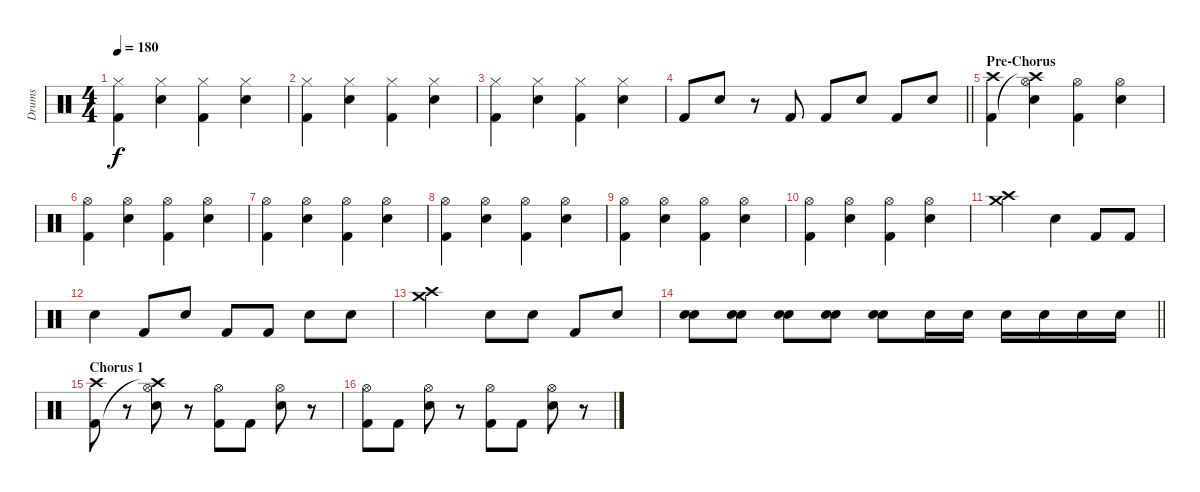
\track ("Drums" "Drums") {instrument percussion}
\staff {score}
\articulation defaults
\ts (4 4)
\tempo 180
\clef neutral
\ks c
("Hi-Hat (closed)" "Kick (hit) 2").4{dy f} ("Hi-Hat (closed)" "Snare (hit) 2").4 ("Hi-Hat (closed)" "Kick (hit) 2").4 ("Hi-Hat (closed)" "Snare (hit) 2").4 |
("Hi-Hat (closed)" "Kick (hit) 2").4 ("Hi-Hat (closed)" "Snare (hit) 2").4 ("Hi-Hat (closed)" "Kick (hit) 2").4 ("Hi-Hat (closed)" "Snare (hit) 2").4 |
("Hi-Hat (closed)" "Kick (hit) 2").4 ("Hi-Hat (closed)" "Snare (hit) 2").4 ("Hi-Hat (closed)" "Kick (hit) 2").4 ("Hi-Hat (closed)" "Snare (hit) 2").4 |
\barLineRight lightlight "Kick (hit) 2".8 "Snare (hit) 2".8
r.8 "Kick (hit) 2".8 "Kick (hit) 2".8 "Snare (hit) 2".8 "Kick (hit) 2".8 "Snare (hit) 2".8 |
\section ("" "Pre-Chorus")
("Crash high (hit)" "Kick (hit) 2").4 ("Hi-Hat (open)" "Crash high (hit)"{t} "Snare (hit) 2").4 ("Hi-Hat (open)" "Kick (hit) 2").4 ("Hi-Hat (open)" "Snare (hit) 2").4 |
("Hi-Hat (open)" "Kick (hit) 2").4 ("Hi-Hat (open)" "Snare (hit) 2").4 ("Hi-Hat (open)" "Kick (hit) 2").4 ("Hi-Hat (open)" "Snare (hit) 2").4 |
("Hi-Hat (open)" "Kick (hit) 2").4 ("Hi-Hat (open)" "Snare (hit) 2").4 ("Hi-Hat (open)" "Kick (hit) 2").4 ("Hi-Hat (open)" "Snare (hit) 2").4 |
("Hi-Hat (open)" "Kick (hit) 2").4 ("Hi-Hat (open)" "Snare (hit) 2").4 ("Hi-Hat (open)" "Kick (hit) 2").4 ("Hi-Hat (open)" "Snare (hit) 2").4 |
("Hi-Hat (open)" "Kick (hit) 2").4 ("Hi-Hat (open)" "Snare (hit) 2").4 ("Hi-Hat (open)" "Kick (hit) 2").4 ("Hi-Hat (open)" "Snare (hit) 2").4 |
("Hi-Hat (open)" "Kick (hit) 2").4 ("Hi-Hat (open)" "Snare (hit) 2").4 ("Hi-Hat (open)" "Kick (hit) 2").4 ("Hi-Hat (open)" "Snare (hit) 2").4 |
("Crash high (hit)" "Crash medium (hit)").2 "Snare (hit) 2".4 "Kick (hit) 2".8 "Kick (hit) 2".8 |
"Snare (hit) 2".4 "Kick (hit) 2".8 "Snare (hit) 2".8 "Kick (hit) 2".8 "Kick (hit) 2".8 "Snare (hit) 2".8 "Snare (hit) 2".8 |
("Crash high (hit)" "Crash medium (hit)").2 "Snare (hit) 2".8 "Snare (hit) 2".8 "Kick (hit) 2".8 "Snare (hit) 2".8 |
\barLineRight lightlight
("Snare (hit) 2" "Snare (hit) 2").8 ("Snare (hit) 2" "Snare (hit) 2").8 ("Snare (hit) 2" "Snare (hit) 2").8 ("Snare (hit) 2" "Snare (hit) 2").8 ("Snare (hit) 2" "Snare (hit) 2").8 "Snare (hit) 2".16 "Snare (hit) 2".16 "Snare (hit) 2".16 "Snare (hit) 2".16 "Snare (hit) 2".16 "Snare (hit) 2".16 |
\section ("" "Chorus 1")
("Crash high (hit)" "Kick (hit) 2").8 r.8 ("Hi-Hat (open)" "Crash high (hit)"{t} "Snare (hit) 2").8 r.8 ("Hi-Hat (open)" "Kick (hit) 2").8 "Kick (hit) 2".8 ("Hi-Hat (open)" "Snare (hit) 2").8 r.8 |
("Hi-Hat (open)" "Kick (hit) 2").8 "Kick (hit) 2".8 ("Hi-Hat (open)" "Snare (hit) 2").8 r.8 ("Hi-Hat (open)" "Kick (hit) 2").8 "Kick (hit) 2".8 ("Hi-Hat (open)" "Snare (hit) 2").8 r.8
